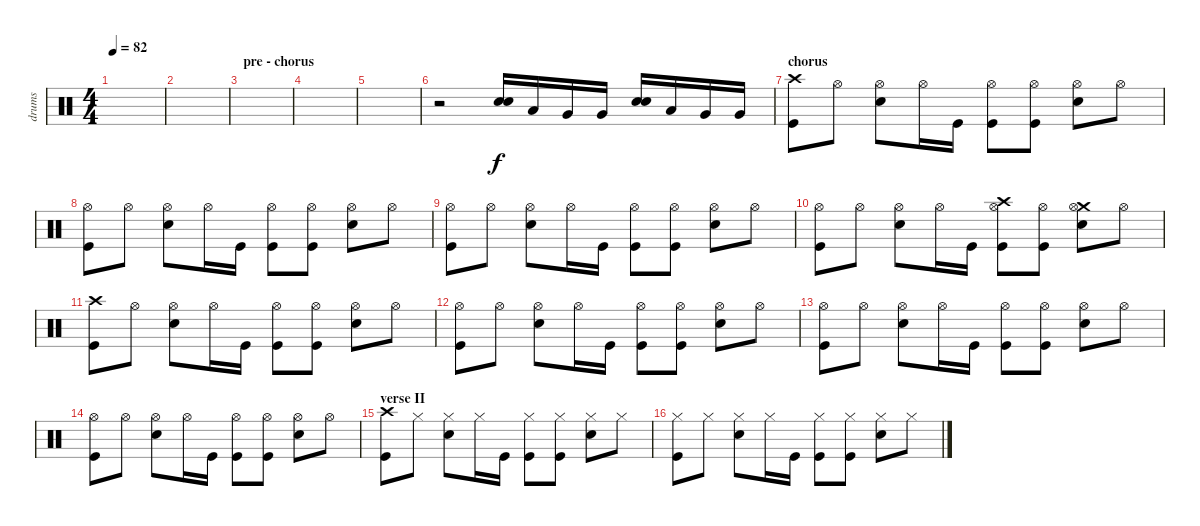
\track ("drums" "drums") {instrument percussion}
\staff {score}
\articulation defaults
\ts (4 4)
\tempo 82
\clef neutral
\ks c
|
|
\section ("" "pre - chorus")
|
|
|
r.2 ("Snare (hit) 2" "Electric Snare (hit)").16 "Low Tom (hit)".16 "Very Low Tom (hit)".16 "Very Low Tom (hit)".16 ("Snare (hit) 2" "Electric Snare (hit)").16 "Low Tom (hit)".16 "Very Low Tom (hit)".16 "Very Low Tom (hit)".16 |
\section ("" "chorus")
("Crash high (hit)" "Kick (hit)").8 "Hi-Hat (open)".8 ("Hi-Hat (open)" "Snare (hit) 2").8 "Hi-Hat (open)".16 "Kick (hit)".16 ("Hi-Hat (open)" "Kick (hit)").8 ("Hi-Hat (open)" "Kick (hit)").8 ("Hi-Hat (open)" "Snare (hit) 2").8 "Hi-Hat (open)".8 |
("Hi-Hat (open)" "Kick (hit)").8 "Hi-Hat (open)".8 ("Hi-Hat (open)" "Snare (hit) 2").8 "Hi-Hat (open)".16 "Kick (hit)".16 ("Hi-Hat (open)" "Kick (hit)").8 ("Hi-Hat (open)" "Kick (hit)").8 ("Hi-Hat (open)" "Snare (hit) 2").8 "Hi-Hat (open)".8 |
("Hi-Hat (open)" "Kick (hit)").8 "Hi-Hat (open)".8 ("Hi-Hat (open)" "Snare (hit) 2").8 "Hi-Hat (open)".16 "Kick (hit)".16 ("Hi-Hat (open)" "Kick (hit)").8 ("Hi-Hat (open)" "Kick (hit)").8 ("Hi-Hat (open)" "Snare (hit) 2").8 "Hi-Hat (open)".8 |
("Hi-Hat (open)" "Kick (hit)").8 "Hi-Hat (open)".8 ("Hi-Hat (open)" "Snare (hit) 2").8 "Hi-Hat (open)".16 "Kick (hit)".16 ("Crash high (hit)" "Hi-Hat (open)" "Kick (hit)").8 ("Hi-Hat (open)" "Kick (hit)").8 ("Crash medium (hit)" "Hi-Hat (open)" "Snare (hit) 2").8 "Hi-Hat (open)".8 |
("Crash high (hit)" "Kick (hit)").8 "Hi-Hat (open)".8 ("Hi-Hat (open)" "Snare (hit) 2").8 "Hi-Hat (open)".16 "Kick (hit)".16 ("Hi-Hat (open)" "Kick (hit)").8 ("Hi-Hat (open)" "Kick (hit)").8 ("Hi-Hat (open)" "Snare (hit) 2").8 "Hi-Hat (open)".8 |
("Hi-Hat (open)" "Kick (hit)").8 "Hi-Hat (open)".8 ("Hi-Hat (open)" "Snare (hit) 2").8 "Hi-Hat (open)".16 "Kick (hit)".16 ("Hi-Hat (open)" "Kick (hit)").8 ("Hi-Hat (open)" "Kick (hit)").8 ("Hi-Hat (open)" "Snare (hit) 2").8 "Hi-Hat (open)".8 |
("Hi-Hat (open)" "Kick (hit)").8 "Hi-Hat (open)".8 ("Hi-Hat (open)" "Snare (hit) 2").8 "Hi-Hat (open)".16 "Kick (hit)".16 ("Hi-Hat (open)" "Kick (hit)").8 ("Hi-Hat (open)" "Kick (hit)").8 ("Hi-Hat (open)" "Snare (hit) 2").8 "Hi-Hat (open)".8 |
("Hi-Hat (open)" "Kick (hit)").8 "Hi-Hat (open)".8 ("Hi-Hat (open)" "Snare (hit) 2").8 "Hi-Hat (open)".16 "Kick (hit)".16 ("Hi-Hat (open)" "Kick (hit)").8 ("Hi-Hat (open)" "Kick (hit)").8 ("Hi-Hat (open)" "Snare (hit) 2").8 "Hi-Hat (open)".8 |
\section ("" "verse II")
("Crash high (hit)" "Kick (hit)").8 "Hi-Hat (closed)".8 ("Hi-Hat (closed)" "Snare (hit) 2").8 "Hi-Hat (closed)".16 "Kick (hit)".16 ("Hi-Hat (closed)" "Kick (hit)").8 ("Hi-Hat (closed)" "Kick (hit)").8 ("Hi-Hat (closed)" "Snare (hit) 2").8 "Hi-Hat (closed)".8 |
("Hi-Hat (closed)" "Kick (hit)").8 "Hi-Hat (closed)".8 ("Hi-Hat (closed)" "Snare (hit) 2").8 "Hi-Hat (closed)".16 "Kick (hit)".16 ("Hi-Hat (closed)" "Kick (hit)").8 ("Hi-Hat (closed)" "Kick (hit)").8 ("Hi-Hat (closed)" "Snare (hit) 2").8 "Hi-Hat (closed)".8
